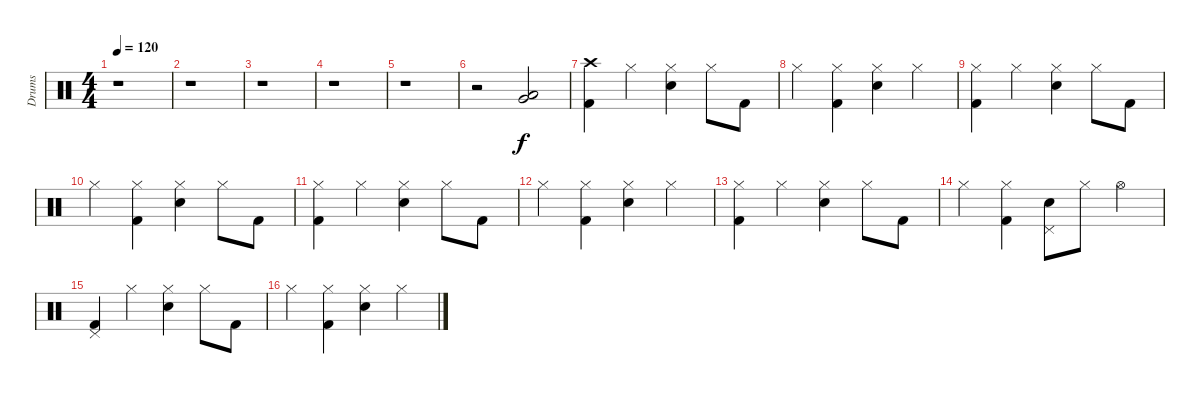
\track ("Drums" "Drums") {instrument percussion}
\staff {score}
\articulation defaults
\ts (4 4)
\tempo 120
\clef neutral
\ks c
r.1{dy f} |
r.1 |
r.1 |
r.1 |
r.1 |
r.2 ("Low Tom (hit)" "Very Low Tom (hit)").2{bd 120} |
("Crash high (hit)" "Kick (hit) 2").4 "Hi-Hat (closed)".4 ("Hi-Hat (closed)" "Snare (hit) 2").4 "Hi-Hat (closed)".8 "Kick (hit) 2".8 |
"Hi-Hat (closed)".4 ("Hi-Hat (closed)" "Kick (hit) 2").4 ("Hi-Hat (closed)" "Snare (hit) 2").4 "Hi-Hat (closed)".4 |
("Hi-Hat (closed)" "Kick (hit) 2").4 "Hi-Hat (closed)".4 ("Hi-Hat (closed)" "Snare (hit) 2").4 "Hi-Hat (closed)".8 "Kick (hit) 2".8 |
"Hi-Hat (closed)".4 ("Hi-Hat (closed)" "Kick (hit) 2").4 ("Hi-Hat (closed)" "Snare (hit) 2").4 "Hi-Hat (closed)".8 "Kick (hit) 2".8 |
("Hi-Hat (closed)" "Kick (hit) 2").4 "Hi-Hat (closed)".4 ("Hi-Hat (closed)" "Snare (hit) 2").4 "Hi-Hat (closed)".8 "Kick (hit) 2".8 |
"Hi-Hat (closed)".4 ("Hi-Hat (closed)" "Kick (hit) 2").4 ("Hi-Hat (closed)" "Snare (hit) 2").4 "Hi-Hat (closed)".4 |
("Hi-Hat (closed)" "Kick (hit) 2").4 "Hi-Hat (closed)".4 ("Hi-Hat (closed)" "Snare (hit) 2").4 "Hi-Hat (closed)".8 "Kick (hit) 2".8 |
"Hi-Hat (closed)".4 ("Hi-Hat (closed)" "Kick (hit) 2").4 ("Pedal Hi-Hat (hit)" "Snare (hit) 2").8 "Hi-Hat (closed)".8 "Hi-Hat (open)".4 |
("Pedal Hi-Hat (hit)" "Kick (hit) 2").4 "Hi-Hat (closed)".4 ("Hi-Hat (closed)" "Snare (hit) 2").4 "Hi-Hat (closed)".8 "Kick (hit) 2".8 |
"Hi-Hat (closed)".4 ("Hi-Hat (closed)" "Kick (hit) 2").4 ("Hi-Hat (closed)" "Snare (hit) 2").4 "Hi-Hat (closed)".4
